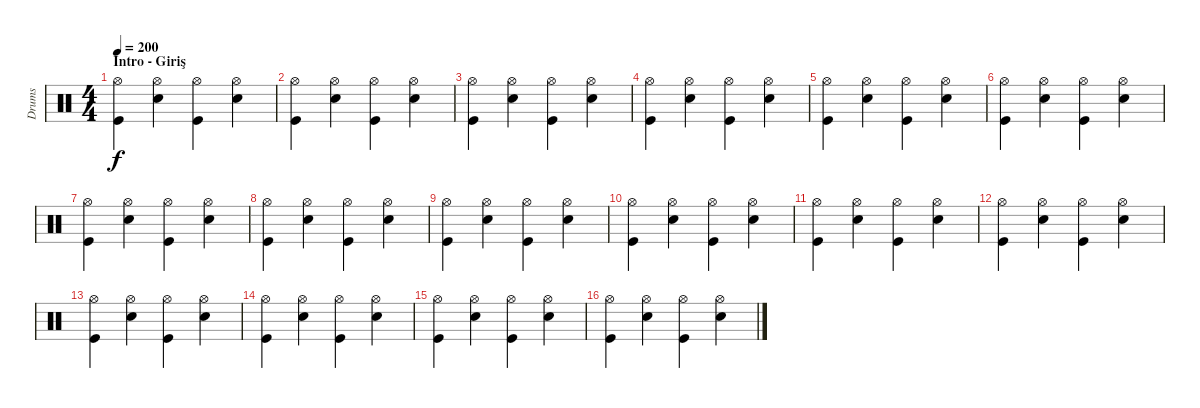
\track ("Drums" "Drums") {instrument percussion}
\staff {score}
\articulation defaults
\ts (4 4)
\section ("" "Intro - Giriş")
\tempo 200
\clef neutral
\ks c
("Hi-Hat (open)" "Kick (hit)").4{dy f} ("Hi-Hat (open)" "Snare (hit) 2").4 ("Hi-Hat (open)" "Kick (hit)").4 ("Hi-Hat (open)" "Snare (hit) 2").4 |
("Hi-Hat (open)" "Kick (hit)").4 ("Hi-Hat (open)" "Snare (hit) 2").4 ("Hi-Hat (open)" "Kick (hit)").4 ("Hi-Hat (open)" "Snare (hit) 2").4 |
("Hi-Hat (open)" "Kick (hit)").4 ("Hi-Hat (open)" "Snare (hit) 2").4 ("Hi-Hat (open)" "Kick (hit)").4 ("Hi-Hat (open)" "Snare (hit) 2").4 |
("Hi-Hat (open)" "Kick (hit)").4 ("Hi-Hat (open)" "Snare (hit) 2").4 ("Hi-Hat (open)" "Kick (hit)").4 ("Hi-Hat (open)" "Snare (hit) 2").4 |
("Hi-Hat (open)" "Kick (hit)").4 ("Hi-Hat (open)" "Snare (hit) 2").4 ("Hi-Hat (open)" "Kick (hit)").4 ("Hi-Hat (open)" "Snare (hit) 2").4 |
("Hi-Hat (open)" "Kick (hit)").4 ("Hi-Hat (open)" "Snare (hit) 2").4 ("Hi-Hat (open)" "Kick (hit)").4 ("Hi-Hat (open)" "Snare (hit) 2").4 |
("Hi-Hat (open)" "Kick (hit)").4 ("Hi-Hat (open)" "Snare (hit) 2").4 ("Hi-Hat (open)" "Kick (hit)").4 ("Hi-Hat (open)" "Snare (hit) 2").4 |
("Hi-Hat (open)" "Kick (hit)").4 ("Hi-Hat (open)" "Snare (hit) 2").4 ("Hi-Hat (open)" "Kick (hit)").4 ("Hi-Hat (open)" "Snare (hit) 2").4 |
("Hi-Hat (open)" "Kick (hit)").4 ("Hi-Hat (open)" "Snare (hit) 2").4 ("Hi-Hat (open)" "Kick (hit)").4 ("Hi-Hat (open)" "Snare (hit) 2").4 |
("Hi-Hat (open)" "Kick (hit)").4 ("Hi-Hat (open)" "Snare (hit) 2").4 ("Hi-Hat (open)" "Kick (hit)").4 ("Hi-Hat (open)" "Snare (hit) 2").4 |
("Hi-Hat (open)" "Kick (hit)").4 ("Hi-Hat (open)" "Snare (hit) 2").4 ("Hi-Hat (open)" "Kick (hit)").4 ("Hi-Hat (open)" "Snare (hit) 2").4 |
("Hi-Hat (open)" "Kick (hit)").4 ("Hi-Hat (open)" "Snare (hit) 2").4 ("Hi-Hat (open)" "Kick (hit)").4 ("Hi-Hat (open)" "Snare (hit) 2").4 |
("Hi-Hat (open)" "Kick (hit)").4 ("Hi-Hat (open)" "Snare (hit) 2").4 ("Hi-Hat (open)" "Kick (hit)").4 ("Hi-Hat (open)" "Snare (hit) 2").4 |
("Hi-Hat (open)" "Kick (hit)").4 ("Hi-Hat (open)" "Snare (hit) 2").4 ("Hi-Hat (open)" "Kick (hit)").4 ("Hi-Hat (open)" "Snare (hit) 2").4 |
("Hi-Hat (open)" "Kick (hit)").4 ("Hi-Hat (open)" "Snare (hit) 2").4 ("Hi-Hat (open)" "Kick (hit)").4 ("Hi-Hat (open)" "Snare (hit) 2").4 |
("Hi-Hat (open)" "Kick (hit)").4 ("Hi-Hat (open)" "Snare (hit) 2").4 ("Hi-Hat (open)" "Kick (hit)").4 ("Hi-Hat (open)" "Snare (hit) 2").4
